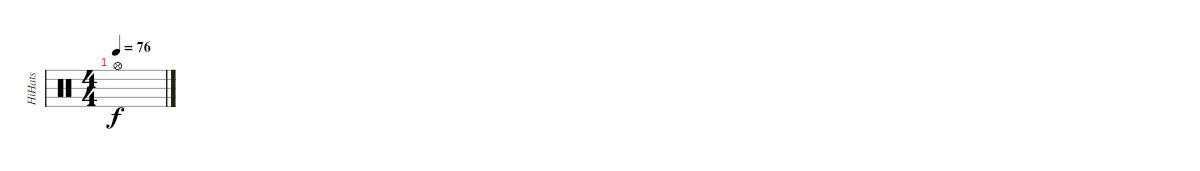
\track ("HiHats" "HiHats") {instrument percussion}
\staff {score}
\articulation defaults
\ts (4 4)
\tempo 76
\clef neutral
\ks c "Hi-Hat (open)".1{dy f}
